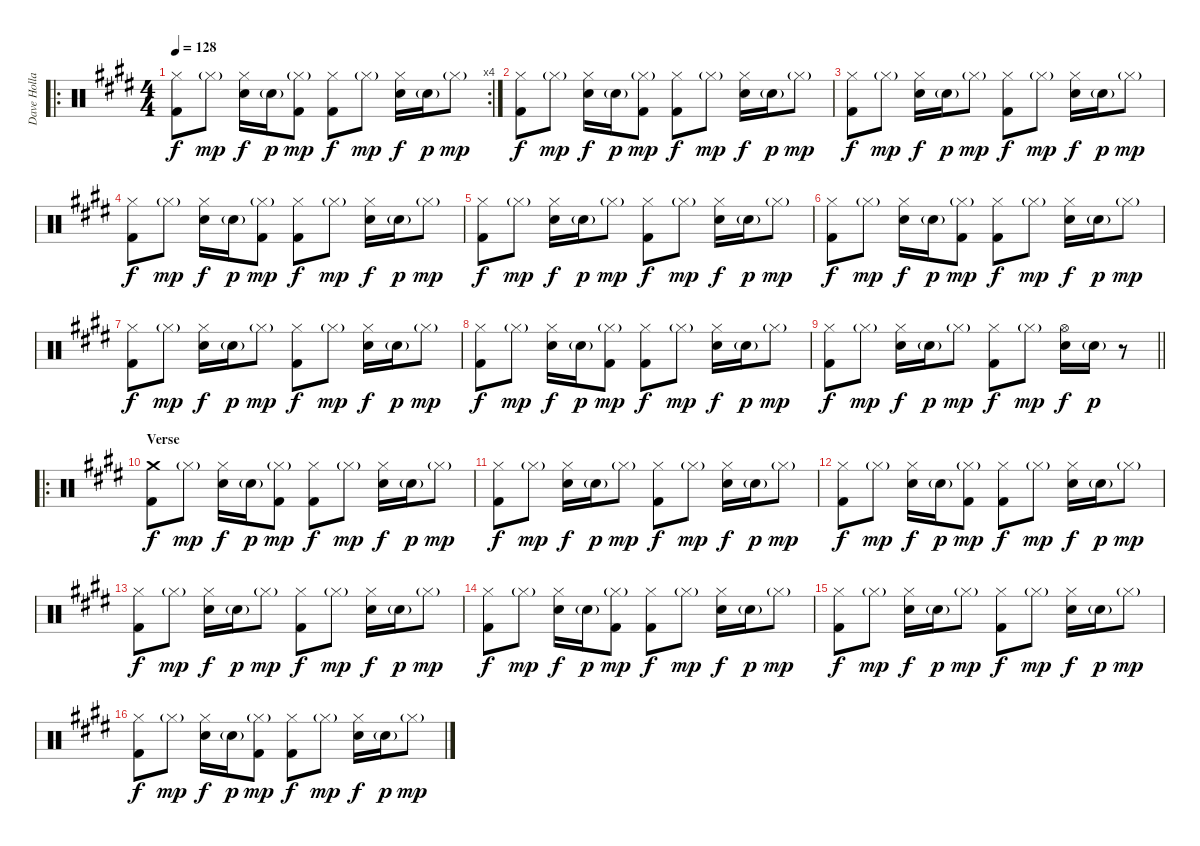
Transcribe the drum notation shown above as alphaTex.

\track ("Dave Holland" "Dave Holla") {instrument percussion}
\staff {score}
\articulation defaults
\ro
\rc 4
\ts (4 4)
\tempo 128
\clef neutral
\ks e
("Hi-Hat (closed)" "Kick (hit) 2").8{dy f} "Hi-Hat (closed)"{g}.8{dy mp} ("Hi-Hat (closed)" "Electric Snare (hit)").16{dy f} "Electric Snare (hit)"{g}.16{dy p} ("Hi-Hat (closed)"{g} "Kick (hit) 2").8{dy mp} ("Hi-Hat (closed)" "Kick (hit) 2").8{dy f} "Hi-Hat (closed)"{g}.8{dy mp} ("Hi-Hat (closed)" "Electric Snare (hit)").16{dy f} "Electric Snare (hit)"{g}.16{dy p} "Hi-Hat (closed)"{g}.8{dy mp} |
("Hi-Hat (closed)" "Kick (hit) 2").8{dy f} "Hi-Hat (closed)"{g}.8{dy mp} ("Hi-Hat (closed)" "Electric Snare (hit)").16{dy f} "Electric Snare (hit)"{g}.16{dy p} ("Hi-Hat (closed)"{g} "Kick (hit) 2").8{dy mp} ("Hi-Hat (closed)" "Kick (hit) 2").8{dy f} "Hi-Hat (closed)"{g}.8{dy mp} ("Hi-Hat (closed)" "Electric Snare (hit)").16{dy f} "Electric Snare (hit)"{g}.16{dy p} "Hi-Hat (closed)"{g}.8{dy mp} |
("Hi-Hat (closed)" "Kick (hit) 2").8{dy f} "Hi-Hat (closed)"{g}.8{dy mp} ("Hi-Hat (closed)" "Electric Snare (hit)").16{dy f} "Electric Snare (hit)"{g}.16{dy p} "Hi-Hat (closed)"{g}.8{dy mp} ("Hi-Hat (closed)" "Kick (hit) 2").8{dy f} "Hi-Hat (closed)"{g}.8{dy mp} ("Hi-Hat (closed)" "Electric Snare (hit)").16{dy f} "Electric Snare (hit)"{g}.16{dy p} "Hi-Hat (closed)"{g}.8{dy mp} |
("Hi-Hat (closed)" "Kick (hit) 2").8{dy f} "Hi-Hat (closed)"{g}.8{dy mp} ("Hi-Hat (closed)" "Electric Snare (hit)").16{dy f} "Electric Snare (hit)"{g}.16{dy p} ("Hi-Hat (closed)"{g} "Kick (hit) 2").8{dy mp} ("Hi-Hat (closed)" "Kick (hit) 2").8{dy f} "Hi-Hat (closed)"{g}.8{dy mp} ("Hi-Hat (closed)" "Electric Snare (hit)").16{dy f} "Electric Snare (hit)"{g}.16{dy p} "Hi-Hat (closed)"{g}.8{dy mp} |
("Hi-Hat (closed)" "Kick (hit) 2").8{dy f} "Hi-Hat (closed)"{g}.8{dy mp} ("Hi-Hat (closed)" "Electric Snare (hit)").16{dy f} "Electric Snare (hit)"{g}.16{dy p} "Hi-Hat (closed)"{g}.8{dy mp} ("Hi-Hat (closed)" "Kick (hit) 2").8{dy f} "Hi-Hat (closed)"{g}.8{dy mp} ("Hi-Hat (closed)" "Electric Snare (hit)").16{dy f} "Electric Snare (hit)"{g}.16{dy p} "Hi-Hat (closed)"{g}.8{dy mp} |
("Hi-Hat (closed)" "Kick (hit) 2").8{dy f} "Hi-Hat (closed)"{g}.8{dy mp} ("Hi-Hat (closed)" "Electric Snare (hit)").16{dy f} "Electric Snare (hit)"{g}.16{dy p} ("Hi-Hat (closed)"{g} "Kick (hit) 2").8{dy mp} ("Hi-Hat (closed)" "Kick (hit) 2").8{dy f} "Hi-Hat (closed)"{g}.8{dy mp} ("Hi-Hat (closed)" "Electric Snare (hit)").16{dy f} "Electric Snare (hit)"{g}.16{dy p} "Hi-Hat (closed)"{g}.8{dy mp} |
("Hi-Hat (closed)" "Kick (hit) 2").8{dy f} "Hi-Hat (closed)"{g}.8{dy mp} ("Hi-Hat (closed)" "Electric Snare (hit)").16{dy f} "Electric Snare (hit)"{g}.16{dy p} "Hi-Hat (closed)"{g}.8{dy mp} ("Hi-Hat (closed)" "Kick (hit) 2").8{dy f} "Hi-Hat (closed)"{g}.8{dy mp} ("Hi-Hat (closed)" "Electric Snare (hit)").16{dy f} "Electric Snare (hit)"{g}.16{dy p} "Hi-Hat (closed)"{g}.8{dy mp} |
("Hi-Hat (closed)" "Kick (hit) 2").8{dy f} "Hi-Hat (closed)"{g}.8{dy mp} ("Hi-Hat (closed)" "Electric Snare (hit)").16{dy f} "Electric Snare (hit)"{g}.16{dy p} ("Hi-Hat (closed)"{g} "Kick (hit) 2").8{dy mp} ("Hi-Hat (closed)" "Kick (hit) 2").8{dy f} "Hi-Hat (closed)"{g}.8{dy mp} ("Hi-Hat (closed)" "Electric Snare (hit)").16{dy f} "Electric Snare (hit)"{g}.16{dy p} "Hi-Hat (closed)"{g}.8{dy mp} |
\barLineRight lightlight
("Hi-Hat (closed)" "Kick (hit) 2").8{dy f} "Hi-Hat (closed)"{g}.8{dy mp} ("Hi-Hat (closed)" "Electric Snare (hit)").16{dy f} "Electric Snare (hit)"{g}.16{dy p} "Hi-Hat (closed)"{g}.8{dy mp} ("Hi-Hat (closed)" "Kick (hit) 2").8{dy f} "Hi-Hat (closed)"{g}.8{dy mp} ("Hi-Hat (open)" "Electric Snare (hit)").16{dy f} "Electric Snare (hit)"{g}.16{dy p} r.8 |
\ro
\section ("" "Verse")
("Crash medium (hit)" "Kick (hit) 2").8{dy f} "Hi-Hat (closed)"{g}.8{dy mp} ("Hi-Hat (closed)" "Electric Snare (hit)").16{dy f} "Electric Snare (hit)"{g}.16{dy p} ("Hi-Hat (closed)"{g} "Kick (hit) 2").8{dy mp} ("Hi-Hat (closed)" "Kick (hit) 2").8{dy f} "Hi-Hat (closed)"{g}.8{dy mp} ("Hi-Hat (closed)" "Electric Snare (hit)").16{dy f} "Electric Snare (hit)"{g}.16{dy p} "Hi-Hat (closed)"{g}.8{dy mp} |
("Hi-Hat (closed)" "Kick (hit) 2").8{dy f} "Hi-Hat (closed)"{g}.8{dy mp} ("Hi-Hat (closed)" "Electric Snare (hit)").16{dy f} "Electric Snare (hit)"{g}.16{dy p} "Hi-Hat (closed)"{g}.8{dy mp} ("Hi-Hat (closed)" "Kick (hit) 2").8{dy f} "Hi-Hat (closed)"{g}.8{dy mp} ("Hi-Hat (closed)" "Electric Snare (hit)").16{dy f} "Electric Snare (hit)"{g}.16{dy p} "Hi-Hat (closed)"{g}.8{dy mp} |
("Hi-Hat (closed)" "Kick (hit) 2").8{dy f} "Hi-Hat (closed)"{g}.8{dy mp} ("Hi-Hat (closed)" "Electric Snare (hit)").16{dy f} "Electric Snare (hit)"{g}.16{dy p} ("Hi-Hat (closed)"{g} "Kick (hit) 2").8{dy mp} ("Hi-Hat (closed)" "Kick (hit) 2").8{dy f} "Hi-Hat (closed)"{g}.8{dy mp} ("Hi-Hat (closed)" "Electric Snare (hit)").16{dy f} "Electric Snare (hit)"{g}.16{dy p} "Hi-Hat (closed)"{g}.8{dy mp} |
("Hi-Hat (closed)" "Kick (hit) 2").8{dy f} "Hi-Hat (closed)"{g}.8{dy mp} ("Hi-Hat (closed)" "Electric Snare (hit)").16{dy f} "Electric Snare (hit)"{g}.16{dy p} "Hi-Hat (closed)"{g}.8{dy mp} ("Hi-Hat (closed)" "Kick (hit) 2").8{dy f} "Hi-Hat (closed)"{g}.8{dy mp} ("Hi-Hat (closed)" "Electric Snare (hit)").16{dy f} "Electric Snare (hit)"{g}.16{dy p} "Hi-Hat (closed)"{g}.8{dy mp} |
("Hi-Hat (closed)" "Kick (hit) 2").8{dy f} "Hi-Hat (closed)"{g}.8{dy mp} ("Hi-Hat (closed)" "Electric Snare (hit)").16{dy f} "Electric Snare (hit)"{g}.16{dy p} ("Hi-Hat (closed)"{g} "Kick (hit) 2").8{dy mp} ("Hi-Hat (closed)" "Kick (hit) 2").8{dy f} "Hi-Hat (closed)"{g}.8{dy mp} ("Hi-Hat (closed)" "Electric Snare (hit)").16{dy f} "Electric Snare (hit)"{g}.16{dy p} "Hi-Hat (closed)"{g}.8{dy mp} |
("Hi-Hat (closed)" "Kick (hit) 2").8{dy f} "Hi-Hat (closed)"{g}.8{dy mp} ("Hi-Hat (closed)" "Electric Snare (hit)").16{dy f} "Electric Snare (hit)"{g}.16{dy p} "Hi-Hat (closed)"{g}.8{dy mp} ("Hi-Hat (closed)" "Kick (hit) 2").8{dy f} "Hi-Hat (closed)"{g}.8{dy mp} ("Hi-Hat (closed)" "Electric Snare (hit)").16{dy f} "Electric Snare (hit)"{g}.16{dy p} "Hi-Hat (closed)"{g}.8{dy mp} |
("Hi-Hat (closed)" "Kick (hit) 2").8{dy f} "Hi-Hat (closed)"{g}.8{dy mp} ("Hi-Hat (closed)" "Electric Snare (hit)").16{dy f} "Electric Snare (hit)"{g}.16{dy p} ("Hi-Hat (closed)"{g} "Kick (hit) 2").8{dy mp} ("Hi-Hat (closed)" "Kick (hit) 2").8{dy f} "Hi-Hat (closed)"{g}.8{dy mp} ("Hi-Hat (closed)" "Electric Snare (hit)").16{dy f} "Electric Snare (hit)"{g}.16{dy p} "Hi-Hat (closed)"{g}.8{dy mp}
